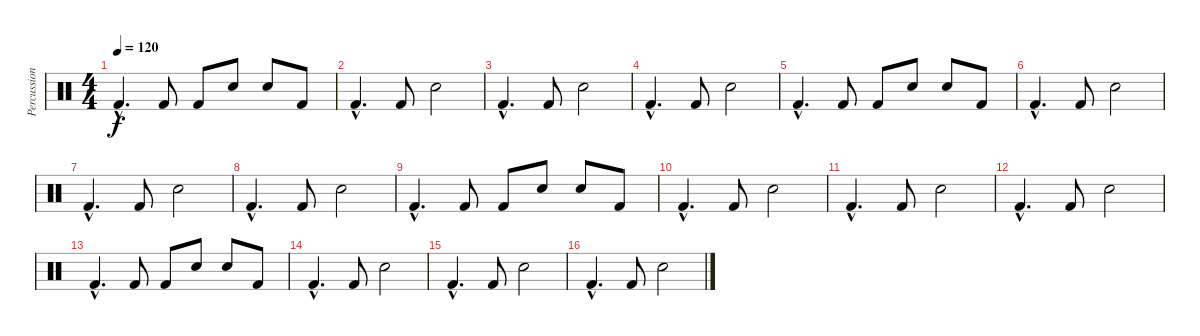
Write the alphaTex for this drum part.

\track ("Percussioni" "Percussion") {instrument percussion}
\staff {score}
\articulation defaults
\ts (4 4)
\tempo 120
\clef neutral
\ks c "Kick (hit) 2"{hac}.4{d dy f} "Kick (hit) 2".8 "Kick (hit) 2".8 "Snare (hit) 2".8 "Snare (hit) 2".8 "Kick (hit) 2".8
|
"Kick (hit) 2"{hac}.4{d} "Kick (hit) 2".8 "Snare (hit) 2".2 |
"Kick (hit) 2"{hac}.4{d} "Kick (hit) 2".8 "Snare (hit) 2".2 |
"Kick (hit) 2"{hac}.4{d} "Kick (hit) 2".8 "Snare (hit) 2".2 |
"Kick (hit) 2"{hac}.4{d} "Kick (hit) 2".8 "Kick (hit) 2".8 "Snare (hit) 2".8 "Snare (hit) 2".8 "Kick (hit) 2".8 |
"Kick (hit) 2"{hac}.4{d} "Kick (hit) 2".8 "Snare (hit) 2".2 |
"Kick (hit) 2"{hac}.4{d} "Kick (hit) 2".8 "Snare (hit) 2".2 |
"Kick (hit) 2"{hac}.4{d} "Kick (hit) 2".8 "Snare (hit) 2".2 |
"Kick (hit) 2"{hac}.4{d} "Kick (hit) 2".8 "Kick (hit) 2".8 "Snare (hit) 2".8 "Snare (hit) 2".8 "Kick (hit) 2".8 |
"Kick (hit) 2"{hac}.4{d} "Kick (hit) 2".8 "Snare (hit) 2".2 |
"Kick (hit) 2"{hac}.4{d} "Kick (hit) 2".8 "Snare (hit) 2".2 |
"Kick (hit) 2"{hac}.4{d} "Kick (hit) 2".8 "Snare (hit) 2".2 |
"Kick (hit) 2"{hac}.4{d} "Kick (hit) 2".8 "Kick (hit) 2".8 "Snare (hit) 2".8 "Snare (hit) 2".8 "Kick (hit) 2".8 |
"Kick (hit) 2"{hac}.4{d} "Kick (hit) 2".8 "Snare (hit) 2".2 |
"Kick (hit) 2"{hac}.4{d} "Kick (hit) 2".8 "Snare (hit) 2".2 |
"Kick (hit) 2"{hac}.4{d} "Kick (hit) 2".8 "Snare (hit) 2".2
